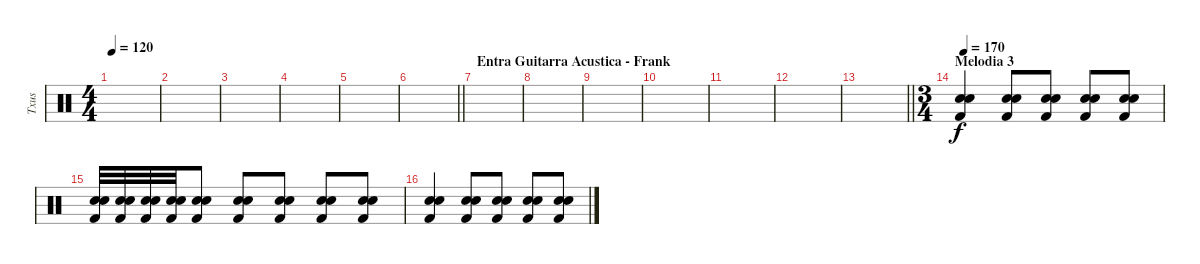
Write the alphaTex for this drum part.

\track ("Txus" "Txus") {instrument percussion}
\staff {score}
\articulation defaults
\ts (4 4)
\tempo 120
\clef neutral
\ks c
|
|
|
|
|
\barLineRight lightlight
|
\section ("" "Entra Guitarra Acustica - Frank")
|
|
|
|
|
|
\barLineRight lightlight
|
\ts (3 4)
\section ("" "Melodia 3")
\tempo 170
("Snare (hit) 2" "Hand Clap (hit)" "Kick (hit) 2").4{volume 10} ("Snare (hit) 2" "Hand Clap (hit)" "Kick (hit) 2").8 ("Snare (hit) 2" "Hand Clap (hit)" "Kick (hit) 2").8 ("Snare (hit) 2" "Hand Clap (hit)" "Kick (hit) 2").8 ("Snare (hit) 2" "Hand Clap (hit)" "Kick (hit) 2").8 |
("Snare (hit) 2" "Hand Clap (hit)" "Kick (hit) 2").32 ("Snare (hit) 2" "Hand Clap (hit)" "Kick (hit) 2").32 ("Snare (hit) 2" "Hand Clap (hit)" "Kick (hit) 2").32 ("Snare (hit) 2" "Hand Clap (hit)" "Kick (hit) 2").32 ("Snare (hit) 2" "Hand Clap (hit)" "Kick (hit) 2").8 ("Snare (hit) 2" "Hand Clap (hit)" "Kick (hit) 2").8 ("Snare (hit) 2" "Hand Clap (hit)" "Kick (hit) 2").8 ("Snare (hit) 2" "Hand Clap (hit)" "Kick (hit) 2").8 ("Snare (hit) 2" "Hand Clap (hit)" "Kick (hit) 2").8 |
("Snare (hit) 2" "Hand Clap (hit)" "Kick (hit) 2").4 ("Snare (hit) 2" "Hand Clap (hit)" "Kick (hit) 2").8 ("Snare (hit) 2" "Hand Clap (hit)" "Kick (hit) 2").8 ("Snare (hit) 2" "Hand Clap (hit)" "Kick (hit) 2").8 ("Snare (hit) 2" "Hand Clap (hit)" "Kick (hit) 2").8
